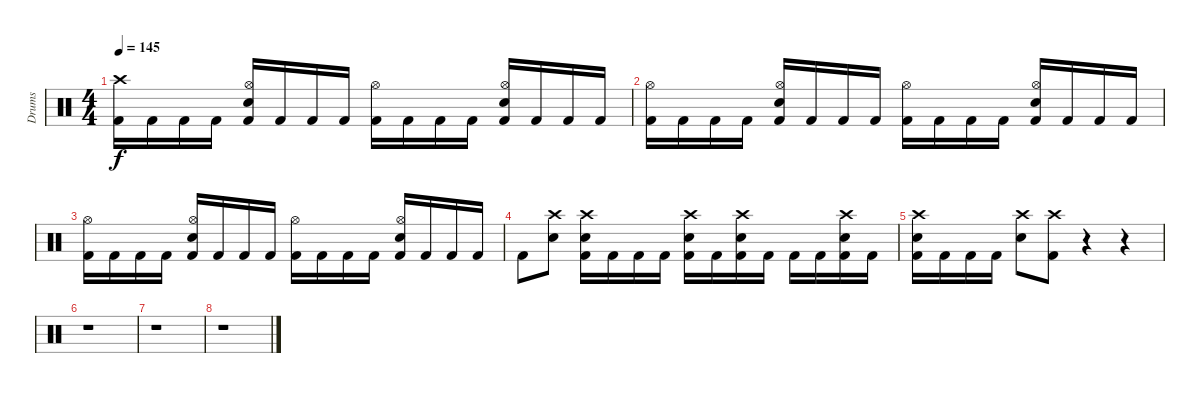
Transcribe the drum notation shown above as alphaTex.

\track ("Drums" "Drums") {instrument percussion}
\staff {score}
\articulation defaults
\ts (4 4)
\tempo 145
\clef neutral
\ks c
("Crash high (hit)" "Kick (hit) 2").16{dy f} "Kick (hit) 2".16 "Kick (hit) 2".16 "Kick (hit) 2".16 ("Hi-Hat (open)" "Snare (hit) 2" "Kick (hit) 2").16 "Kick (hit) 2".16 "Kick (hit) 2".16 "Kick (hit) 2".16 ("Hi-Hat (open)" "Kick (hit) 2").16 "Kick (hit) 2".16 "Kick (hit) 2".16 "Kick (hit) 2".16 ("Hi-Hat (open)" "Snare (hit) 2" "Kick (hit) 2").16 "Kick (hit) 2".16 "Kick (hit) 2".16 "Kick (hit) 2".16 |
("Hi-Hat (open)" "Kick (hit) 2").16 "Kick (hit) 2".16 "Kick (hit) 2".16 "Kick (hit) 2".16 ("Hi-Hat (open)" "Snare (hit) 2" "Kick (hit) 2").16 "Kick (hit) 2".16 "Kick (hit) 2".16 "Kick (hit) 2".16 ("Hi-Hat (open)" "Kick (hit) 2").16 "Kick (hit) 2".16 "Kick (hit) 2".16 "Kick (hit) 2".16 ("Hi-Hat (open)" "Snare (hit) 2" "Kick (hit) 2").16 "Kick (hit) 2".16 "Kick (hit) 2".16 "Kick (hit) 2".16 |
("Hi-Hat (open)" "Kick (hit) 2").16 "Kick (hit) 2".16 "Kick (hit) 2".16 "Kick (hit) 2".16 ("Hi-Hat (open)" "Snare (hit) 2" "Kick (hit) 2").16 "Kick (hit) 2".16 "Kick (hit) 2".16 "Kick (hit) 2".16 ("Hi-Hat (open)" "Kick (hit) 2").16 "Kick (hit) 2".16 "Kick (hit) 2".16 "Kick (hit) 2".16 ("Hi-Hat (open)" "Snare (hit) 2" "Kick (hit) 2").16 "Kick (hit) 2".16 "Kick (hit) 2".16 "Kick (hit) 2".16 |
"Kick (hit) 2".8 ("Crash high (hit)" "Snare (hit) 2").8 ("Crash high (hit)" "Snare (hit) 2" "Kick (hit) 2").16 "Kick (hit) 2".16 "Kick (hit) 2".16 "Kick (hit) 2".16 ("Crash high (hit)" "Snare (hit) 2" "Kick (hit) 2").16 "Kick (hit) 2".16 ("Crash high (hit)" "Snare (hit) 2" "Kick (hit) 2").16 "Kick (hit) 2".16 "Kick (hit) 2".16 "Kick (hit) 2".16 ("Crash high (hit)" "Snare (hit) 2" "Kick (hit) 2").16 "Kick (hit) 2".16 |
("Crash high (hit)" "Snare (hit) 2" "Kick (hit) 2").16 "Kick (hit) 2".16 "Kick (hit) 2".16 "Kick (hit) 2".16 ("Crash high (hit)" "Snare (hit) 2").8 ("Crash high (hit)" "Kick (hit) 2").8 r.4 r.4 |
r.1 |
r.1 |
r.1
